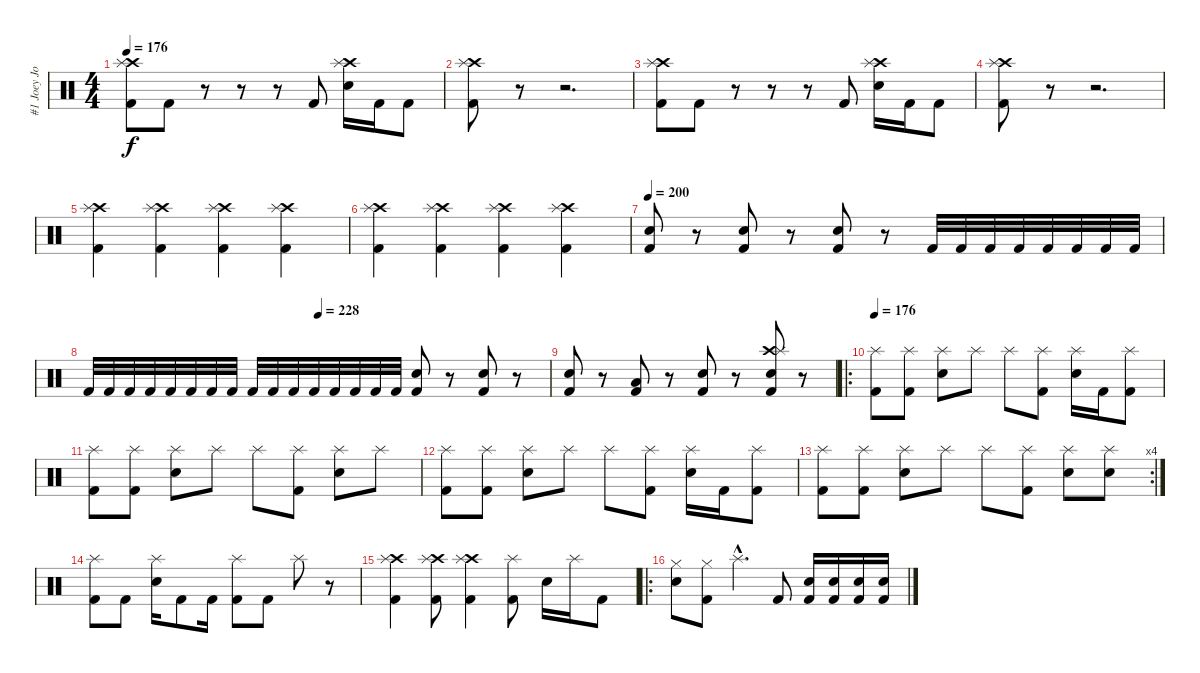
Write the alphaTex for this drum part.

\track ("#1 Joey Jordison - Drums" "#1 Joey Jo") {instrument percussion}
\staff {score}
\articulation defaults
\ts (4 4)
\tempo 176
\clef neutral
\ks c
("Kick (hit) 2" "Crash high (hit)" "Splash (hit)").8{dy f} "Kick (hit) 2".8 r.8 r.8 r.8 "Kick (hit) 2".8 ("Snare (hit) 2" "Crash high (hit)" "Splash (hit)").16 "Kick (hit) 2".16 "Kick (hit) 2".8 |
("Kick (hit) 2" "Crash high (hit)" "Splash (hit)").8 r.8 r.2{d} |
("Kick (hit) 2" "Crash high (hit)" "Splash (hit)").8 "Kick (hit) 2".8 r.8 r.8 r.8 "Kick (hit) 2".8 ("Snare (hit) 2" "Crash high (hit)" "Splash (hit)").16 "Kick (hit) 2".16 "Kick (hit) 2".8 |
("Kick (hit) 2" "Crash high (hit)" "Splash (hit)").8 r.8 r.2{d} |
("Kick (hit) 2" "Crash high (hit)" "Splash (hit)").4 ("Kick (hit) 2" "Crash high (hit)" "Splash (hit)").4 ("Kick (hit) 2" "Crash high (hit)" "Splash (hit)").4 ("Kick (hit) 2" "Crash high (hit)" "Splash (hit)").4 |
("Kick (hit) 2" "Crash high (hit)" "Splash (hit)").4 ("Kick (hit) 2" "Crash high (hit)" "Splash (hit)").4 ("Kick (hit) 2" "Crash high (hit)" "Splash (hit)").4 ("Kick (hit) 2" "Crash high (hit)" "Splash (hit)").4 |
\tempo 200
("Snare (hit) 2" "Kick (hit) 2").8 r.8 ("Snare (hit) 2" "Kick (hit) 2").8 r.8 ("Snare (hit) 2" "Kick (hit) 2").8 r.8 "Kick (hit) 2".32 "Kick (hit) 2".32 "Kick (hit) 2".32 "Kick (hit) 2".32 "Kick (hit) 2".32 "Kick (hit) 2".32 "Kick (hit) 2".32 "Kick (hit) 2".32 |
\tempo (228 0.5)
"Kick (hit) 2".32 "Kick (hit) 2".32 "Kick (hit) 2".32 "Kick (hit) 2".32 "Kick (hit) 2".32 "Kick (hit) 2".32 "Kick (hit) 2".32 "Kick (hit) 2".32 "Kick (hit) 2".32 "Kick (hit) 2".32 "Kick (hit) 2".32 "Kick (hit) 2".32 "Kick (hit) 2".32 "Kick (hit) 2".32 "Kick (hit) 2".32 "Kick (hit) 2".32 ("Kick (hit) 2" "Snare (hit) 2").8 r.8 ("Kick (hit) 2" "Snare (hit) 2").8 r.8 |
("Snare (hit) 2" "Kick (hit) 2").8 r.8 ("Low Tom (hit)" "Kick (hit) 2").8 r.8 ("Kick (hit) 2" "Snare (hit) 2").8 r.8 ("Crash high (hit)" "Splash (hit)" "Kick (hit) 2" "Snare (hit) 2").8 r.8 |
\ro
\tempo 176
("Kick (hit) 2" "Splash (hit)").8 ("Kick (hit) 2" "Splash (hit)").8 ("Snare (hit) 2" "Splash (hit)").8 "Splash (hit)".8 "Splash (hit)".8 ("Kick (hit) 2" "Splash (hit)").8 ("Snare (hit) 2" "Splash (hit)").16 "Kick (hit) 2".16 ("Kick (hit) 2" "Splash (hit)").8 |
("Kick (hit) 2" "Splash (hit)").8 ("Kick (hit) 2" "Splash (hit)").8 ("Snare (hit) 2" "Splash (hit)").8 "Splash (hit)".8 "Splash (hit)".8 ("Kick (hit) 2" "Splash (hit)").8 ("Snare (hit) 2" "Splash (hit)").8 "Splash (hit)".8 |
("Kick (hit) 2" "Splash (hit)").8 ("Kick (hit) 2" "Splash (hit)").8 ("Snare (hit) 2" "Splash (hit)").8 "Splash (hit)".8 "Splash (hit)".8 ("Kick (hit) 2" "Splash (hit)").8 ("Snare (hit) 2" "Splash (hit)").16 "Kick (hit) 2".16 ("Kick (hit) 2" "Splash (hit)").8 |
\rc 4
("Kick (hit) 2" "Splash (hit)").8 ("Kick (hit) 2" "Splash (hit)").8 ("Snare (hit) 2" "Splash (hit)").8 "Splash (hit)".8 "Splash (hit)".8 ("Kick (hit) 2" "Splash (hit)").8 ("Snare (hit) 2" "Splash (hit)").8 ("Snare (hit) 2" "Splash (hit)").8 |
("Splash (hit)" "Kick (hit) 2").8 "Kick (hit) 2".8 ("Splash (hit)" "Snare (hit) 2").16 "Kick (hit) 2".8 "Kick (hit) 2".16 ("Splash (hit)" "Kick (hit) 2").8 "Kick (hit) 2".8 "Splash (hit)".8 r.8 |
("Kick (hit) 2" "Crash high (hit)" "Splash (hit)").4 ("Kick (hit) 2" "Crash high (hit)" "Splash (hit)").8 ("Crash high (hit)" "Splash (hit)" "Kick (hit) 2").4 ("Splash (hit)" "Kick (hit) 2").8 "Snare (hit) 2".16 "Splash (hit)".16 "Kick (hit) 2".8 |
\ro
("Hi-Hat (closed)" "Snare (hit) 2").8 ("Hi-Hat (closed)" "Kick (hit) 2").8 "Splash (hit)"{hac}.4{d} "Kick (hit) 2".8 ("Snare (hit) 2" "Kick (hit) 2").16 ("Snare (hit) 2" "Kick (hit) 2").16 ("Snare (hit) 2" "Kick (hit) 2").16 ("Snare (hit) 2" "Kick (hit) 2").16
